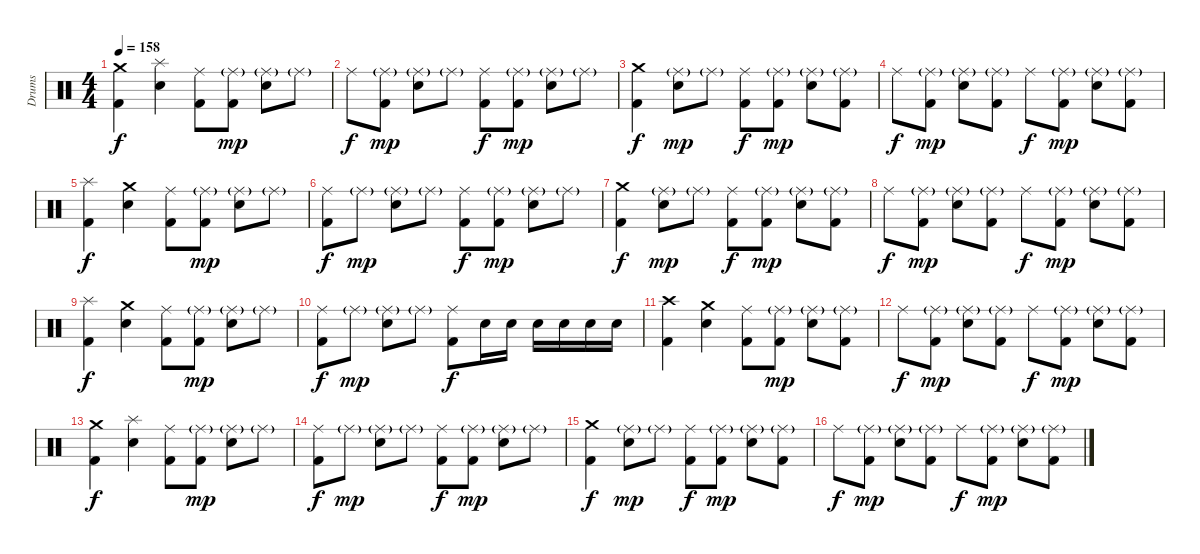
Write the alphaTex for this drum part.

\track ("Drums" "Drums") {instrument percussion}
\staff {score}
\articulation defaults
\ts (4 4)
\tempo 158
\clef neutral
\ks c
("Crash medium (hit)" "Kick (hit) 2").4{dy f} ("Splash (hit)" "Snare (hit) 2").4 ("Ride (middle)" "Kick (hit) 2").8 ("Ride (middle)"{g} "Kick (hit) 2").8{dy mp} ("Ride (middle)"{g} "Snare (hit) 2").8 "Ride (middle)"{g}.8 |
"Ride (middle)".8{dy f} ("Ride (middle)"{g} "Kick (hit) 2").8{dy mp} ("Ride (middle)"{g} "Snare (hit) 2").8 "Ride (middle)"{g}.8 ("Ride (middle)" "Kick (hit) 2").8{dy f} ("Ride (middle)"{g} "Kick (hit) 2").8{dy mp} ("Ride (middle)"{g} "Snare (hit) 2").8 "Ride (middle)"{g}.8 |
("Crash medium (hit)" "Kick (hit) 2").4{dy f} ("Ride (middle)"{g} "Snare (hit) 2").8{dy mp} "Ride (middle)"{g}.8 ("Ride (middle)" "Kick (hit) 2").8{dy f} ("Ride (middle)"{g} "Kick (hit) 2").8{dy mp} ("Ride (middle)"{g} "Snare (hit) 2").8 ("Ride (middle)"{g} "Kick (hit) 2").8 |
"Ride (middle)".8{dy f} ("Ride (middle)"{g} "Kick (hit) 2").8{dy mp} ("Ride (middle)"{g} "Snare (hit) 2").8 ("Ride (middle)"{g} "Kick (hit) 2").8 "Ride (middle)".8{dy f} ("Ride (middle)"{g} "Kick (hit) 2").8{dy mp} ("Ride (middle)"{g} "Snare (hit) 2").8 ("Ride (middle)"{g} "Kick (hit) 2").8 |
("Splash (hit)" "Kick (hit) 2").4{dy f} ("Crash medium (hit)" "Snare (hit) 2").4 ("Ride (middle)" "Kick (hit) 2").8 ("Ride (middle)"{g} "Kick (hit) 2").8{dy mp} ("Ride (middle)"{g} "Snare (hit) 2").8 "Ride (middle)"{g}.8 |
("Ride (middle)" "Kick (hit) 2").8{dy f} "Ride (middle)"{g}.8{dy mp} ("Ride (middle)"{g} "Snare (hit) 2").8 "Ride (middle)"{g}.8 ("Ride (middle)" "Kick (hit) 2").8{dy f} ("Ride (middle)"{g} "Kick (hit) 2").8{dy mp} ("Ride (middle)"{g} "Snare (hit) 2").8 "Ride (middle)"{g}.8 |
("Crash medium (hit)" "Kick (hit) 2").4{dy f} ("Ride (middle)"{g} "Snare (hit) 2").8{dy mp} "Ride (middle)"{g}.8 ("Ride (middle)" "Kick (hit) 2").8{dy f} ("Ride (middle)"{g} "Kick (hit) 2").8{dy mp} ("Ride (middle)"{g} "Snare (hit) 2").8 ("Ride (middle)"{g} "Kick (hit) 2").8 |
"Ride (middle)".8{dy f} ("Ride (middle)"{g} "Kick (hit) 2").8{dy mp} ("Ride (middle)"{g} "Snare (hit) 2").8 ("Ride (middle)"{g} "Kick (hit) 2").8 "Ride (middle)".8{dy f} ("Ride (middle)"{g} "Kick (hit) 2").8{dy mp} ("Ride (middle)"{g} "Snare (hit) 2").8 ("Ride (middle)"{g} "Kick (hit) 2").8 |
("Splash (hit)" "Kick (hit) 2").4{dy f} ("Crash medium (hit)" "Snare (hit) 2").4 ("Ride (middle)" "Kick (hit) 2").8 ("Ride (middle)"{g} "Kick (hit) 2").8{dy mp} ("Ride (middle)"{g} "Snare (hit) 2").8 "Ride (middle)"{g}.8 |
("Ride (middle)" "Kick (hit) 2").8{dy f} "Ride (middle)"{g}.8{dy mp} ("Ride (middle)"{g} "Snare (hit) 2").8 "Ride (middle)"{g}.8 ("Ride (middle)" "Kick (hit) 2").8{dy f} "Snare (hit) 2".16 "Snare (hit) 2".16 "Snare (hit) 2".16 "Snare (hit) 2".16 "Snare (hit) 2".16 "Snare (hit) 2".16 |
("Crash high (hit)" "Kick (hit) 2").4 ("Crash medium (hit)" "Snare (hit) 2").4 ("Ride (middle)" "Kick (hit) 2").8 ("Ride (middle)"{g} "Kick (hit) 2").8{dy mp} ("Ride (middle)"{g} "Snare (hit) 2").8 ("Ride (middle)"{g} "Kick (hit) 2").8 |
"Ride (middle)".8{dy f} ("Ride (middle)"{g} "Kick (hit) 2").8{dy mp} ("Ride (middle)"{g} "Snare (hit) 2").8 ("Ride (middle)"{g} "Kick (hit) 2").8 "Ride (middle)".8{dy f} ("Ride (middle)"{g} "Kick (hit) 2").8{dy mp} ("Ride (middle)"{g} "Snare (hit) 2").8 ("Ride (middle)"{g} "Kick (hit) 2").8 |
("Crash medium (hit)" "Kick (hit) 2").4{dy f} ("Splash (hit)" "Snare (hit) 2").4 ("Ride (middle)" "Kick (hit) 2").8 ("Ride (middle)"{g} "Kick (hit) 2").8{dy mp} ("Ride (middle)"{g} "Snare (hit) 2").8 "Ride (middle)"{g}.8 |
("Ride (middle)" "Kick (hit) 2").8{dy f} "Ride (middle)"{g}.8{dy mp} ("Ride (middle)"{g} "Snare (hit) 2").8 "Ride (middle)"{g}.8 ("Ride (middle)" "Kick (hit) 2").8{dy f} ("Ride (middle)"{g} "Kick (hit) 2").8{dy mp} ("Ride (middle)"{g} "Snare (hit) 2").8 "Ride (middle)"{g}.8 |
("Crash medium (hit)" "Kick (hit) 2").4{dy f} ("Ride (middle)"{g} "Snare (hit) 2").8{dy mp} "Ride (middle)"{g}.8 ("Ride (middle)" "Kick (hit) 2").8{dy f} ("Ride (middle)"{g} "Kick (hit) 2").8{dy mp} ("Ride (middle)"{g} "Snare (hit) 2").8 ("Ride (middle)"{g} "Kick (hit) 2").8 |
"Ride (middle)".8{dy f} ("Ride (middle)"{g} "Kick (hit) 2").8{dy mp} ("Ride (middle)"{g} "Snare (hit) 2").8 ("Ride (middle)"{g} "Kick (hit) 2").8 "Ride (middle)".8{dy f} ("Ride (middle)"{g} "Kick (hit) 2").8{dy mp} ("Ride (middle)"{g} "Snare (hit) 2").8 ("Ride (middle)"{g} "Kick (hit) 2").8
